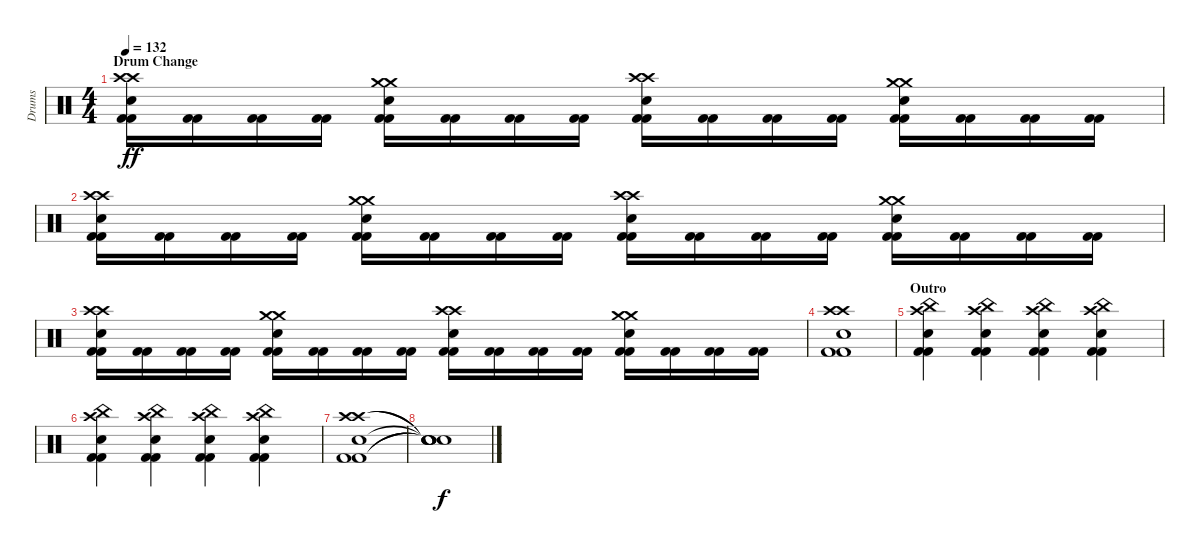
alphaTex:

\track ("Drums" "Drums") {instrument percussion}
\staff {score}
\articulation defaults
\ts (4 4)
\section ("" "Drum Change")
\tempo 132
\clef neutral
\ks c
("Crash high (hit)" "Crash high (hit)" "Electric Snare (hit)" "Kick (hit) 2" "Kick (hit) 2").16{dy ff} ("Kick (hit) 2" "Kick (hit) 2").16 ("Kick (hit) 2" "Kick (hit) 2").16 ("Kick (hit) 2" "Kick (hit) 2").16 ("Crash medium (hit)" "Crash medium (hit)" "Electric Snare (hit)" "Kick (hit) 2" "Kick (hit) 2").16 ("Kick (hit) 2" "Kick (hit) 2").16 ("Kick (hit) 2" "Kick (hit) 2").16 ("Kick (hit) 2" "Kick (hit) 2").16 ("Crash high (hit)" "Crash high (hit)" "Electric Snare (hit)" "Kick (hit) 2" "Kick (hit) 2").16 ("Kick (hit) 2" "Kick (hit) 2").16 ("Kick (hit) 2" "Kick (hit) 2").16 ("Kick (hit) 2" "Kick (hit) 2").16 ("Crash medium (hit)" "Crash medium (hit)" "Electric Snare (hit)" "Kick (hit) 2" "Kick (hit) 2").16 ("Kick (hit) 2" "Kick (hit) 2").16 ("Kick (hit) 2" "Kick (hit) 2").16 ("Kick (hit) 2" "Kick (hit) 2").16 |
("Crash high (hit)" "Crash high (hit)" "Electric Snare (hit)" "Kick (hit) 2" "Kick (hit) 2").16 ("Kick (hit) 2" "Kick (hit) 2").16 ("Kick (hit) 2" "Kick (hit) 2").16 ("Kick (hit) 2" "Kick (hit) 2").16 ("Crash medium (hit)" "Crash medium (hit)" "Electric Snare (hit)" "Kick (hit) 2" "Kick (hit) 2").16 ("Kick (hit) 2" "Kick (hit) 2").16 ("Kick (hit) 2" "Kick (hit) 2").16 ("Kick (hit) 2" "Kick (hit) 2").16 ("Crash high (hit)" "Crash high (hit)" "Electric Snare (hit)" "Kick (hit) 2" "Kick (hit) 2").16 ("Kick (hit) 2" "Kick (hit) 2").16 ("Kick (hit) 2" "Kick (hit) 2").16 ("Kick (hit) 2" "Kick (hit) 2").16 ("Crash medium (hit)" "Crash medium (hit)" "Electric Snare (hit)" "Kick (hit) 2" "Kick (hit) 2").16 ("Kick (hit) 2" "Kick (hit) 2").16 ("Kick (hit) 2" "Kick (hit) 2").16 ("Kick (hit) 2" "Kick (hit) 2").16 |
("Crash high (hit)" "Crash high (hit)" "Electric Snare (hit)" "Kick (hit) 2" "Kick (hit) 2").16 ("Kick (hit) 2" "Kick (hit) 2").16 ("Kick (hit) 2" "Kick (hit) 2").16 ("Kick (hit) 2" "Kick (hit) 2").16 ("Crash medium (hit)" "Crash medium (hit)" "Electric Snare (hit)" "Kick (hit) 2" "Kick (hit) 2").16 ("Kick (hit) 2" "Kick (hit) 2").16 ("Kick (hit) 2" "Kick (hit) 2").16 ("Kick (hit) 2" "Kick (hit) 2").16 ("Crash high (hit)" "Crash high (hit)" "Electric Snare (hit)" "Kick (hit) 2" "Kick (hit) 2").16 ("Kick (hit) 2" "Kick (hit) 2").16 ("Kick (hit) 2" "Kick (hit) 2").16 ("Kick (hit) 2" "Kick (hit) 2").16 ("Crash medium (hit)" "Crash medium (hit)" "Electric Snare (hit)" "Kick (hit) 2" "Kick (hit) 2").16 ("Kick (hit) 2" "Kick (hit) 2").16 ("Kick (hit) 2" "Kick (hit) 2").16 ("Kick (hit) 2" "Kick (hit) 2").16 |
("Crash high (hit)" "Crash high (hit)" "Electric Snare (hit)" "Kick (hit) 2" "Kick (hit) 2").1 |
\section ("" "Outro")
("Crash high (hit)" "China (hit)" "Electric Snare (hit)" "Kick (hit) 2" "Kick (hit) 2").4 ("Crash high (hit)" "China (hit)" "Electric Snare (hit)" "Kick (hit) 2" "Kick (hit) 2").4 ("Crash high (hit)" "China (hit)" "Electric Snare (hit)" "Kick (hit) 2" "Kick (hit) 2").4 ("Crash high (hit)" "China (hit)" "Electric Snare (hit)" "Kick (hit) 2" "Kick (hit) 2").4 |
("Crash high (hit)" "China (hit)" "Electric Snare (hit)" "Kick (hit) 2" "Kick (hit) 2").4 ("Crash high (hit)" "China (hit)" "Electric Snare (hit)" "Kick (hit) 2" "Kick (hit) 2").4 ("Crash high (hit)" "China (hit)" "Electric Snare (hit)" "Kick (hit) 2" "Kick (hit) 2").4 ("Crash high (hit)" "China (hit)" "Electric Snare (hit)" "Kick (hit) 2" "Kick (hit) 2").4 |
("Crash high (hit)" "Crash high (hit)" "Electric Snare (hit)" "Kick (hit) 2" "Kick (hit) 2").1 |
("Snare (hit)"{t} "Snare (hit)"{t} "Snare (hit)"{t} "Snare (hit)"{t} "Snare (hit)"{t}).1{dy f}
